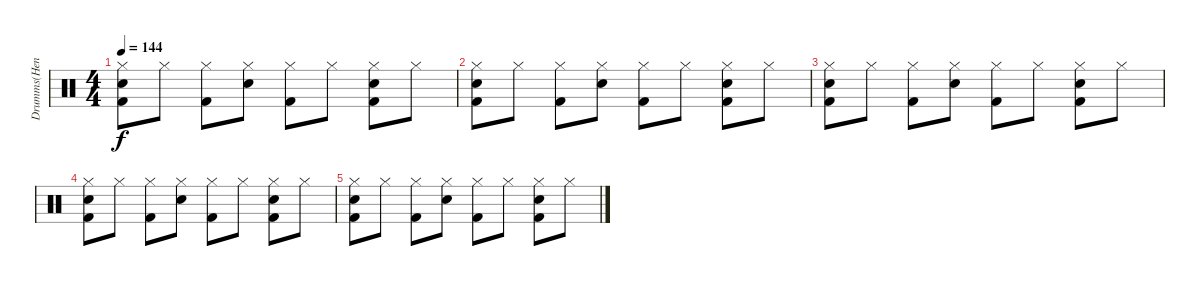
\track ("Drumms(Henrik)" "Drumms(Hen") {instrument percussion}
\staff {score}
\articulation defaults
\ts (4 4)
\tempo 144
\clef neutral
\ks c
("Hi-Hat (closed)" "Kick (hit) 2" "Electric Snare (hit)").8{dy f} "Hi-Hat (closed)".8 ("Hi-Hat (closed)" "Kick (hit) 2").8 ("Hi-Hat (closed)" "Electric Snare (hit)").8 ("Hi-Hat (closed)" "Kick (hit) 2").8 "Hi-Hat (closed)".8 ("Hi-Hat (closed)" "Kick (hit) 2" "Electric Snare (hit)").8 "Hi-Hat (closed)".8 |
("Hi-Hat (closed)" "Kick (hit) 2" "Electric Snare (hit)").8 "Hi-Hat (closed)".8 ("Hi-Hat (closed)" "Kick (hit) 2").8 ("Hi-Hat (closed)" "Electric Snare (hit)").8 ("Hi-Hat (closed)" "Kick (hit) 2").8 "Hi-Hat (closed)".8 ("Hi-Hat (closed)" "Kick (hit) 2" "Electric Snare (hit)").8 "Hi-Hat (closed)".8 |
("Hi-Hat (closed)" "Kick (hit) 2" "Electric Snare (hit)").8 "Hi-Hat (closed)".8 ("Hi-Hat (closed)" "Kick (hit) 2").8 ("Hi-Hat (closed)" "Electric Snare (hit)").8 ("Hi-Hat (closed)" "Kick (hit) 2").8 "Hi-Hat (closed)".8 ("Hi-Hat (closed)" "Kick (hit) 2" "Electric Snare (hit)").8 "Hi-Hat (closed)".8 |
("Hi-Hat (closed)" "Kick (hit) 2" "Electric Snare (hit)").8 "Hi-Hat (closed)".8 ("Hi-Hat (closed)" "Kick (hit) 2").8 ("Hi-Hat (closed)" "Electric Snare (hit)").8 ("Hi-Hat (closed)" "Kick (hit) 2").8 "Hi-Hat (closed)".8 ("Hi-Hat (closed)" "Kick (hit) 2" "Electric Snare (hit)").8 "Hi-Hat (closed)".8 |
("Hi-Hat (closed)" "Kick (hit) 2" "Electric Snare (hit)").8 "Hi-Hat (closed)".8 ("Hi-Hat (closed)" "Kick (hit) 2").8 ("Hi-Hat (closed)" "Electric Snare (hit)").8 ("Hi-Hat (closed)" "Kick (hit) 2").8 "Hi-Hat (closed)".8 ("Hi-Hat (closed)" "Kick (hit) 2" "Electric Snare (hit)").8 "Hi-Hat (closed)".8
